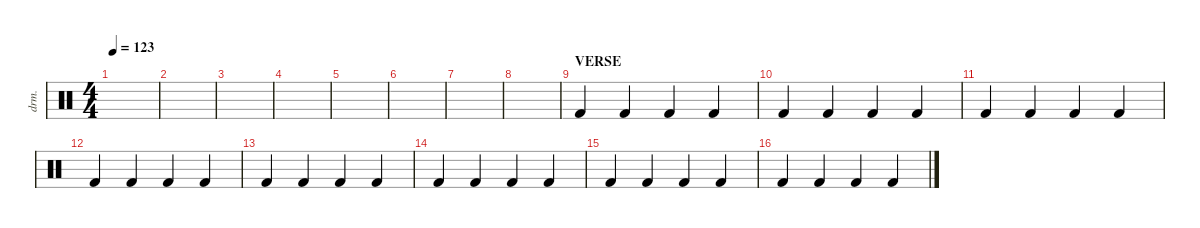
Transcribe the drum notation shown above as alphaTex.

\defaultSystemsLayout 4
\hideDynamics
\bracketExtendMode nobrackets
\track ("Drumkit" "drm.") {instrument percussion}
\staff {score}
\articulation defaults
\ts (4 4)
\tempo 123
\clef neutral
\ks c
|
|
|
|
|
|
|
|
\section ("" "VERSE")
"Kick (hit) 2".4{beam Up} "Kick (hit) 2".4{beam Up} "Kick (hit) 2".4{beam Up} "Kick (hit) 2".4{beam Up} |
"Kick (hit) 2".4{beam Up} "Kick (hit) 2".4{beam Up} "Kick (hit) 2".4{beam Up} "Kick (hit) 2".4{beam Up} |
"Kick (hit) 2".4{beam Up} "Kick (hit) 2".4{beam Up} "Kick (hit) 2".4{beam Up} "Kick (hit) 2".4{beam Up} |
"Kick (hit) 2".4{beam Up} "Kick (hit) 2".4{beam Up} "Kick (hit) 2".4{beam Up} "Kick (hit) 2".4{beam Up} |
"Kick (hit) 2".4{beam Up} "Kick (hit) 2".4{beam Up} "Kick (hit) 2".4{beam Up} "Kick (hit) 2".4{beam Up} |
"Kick (hit) 2".4{beam Up} "Kick (hit) 2".4{beam Up} "Kick (hit) 2".4{beam Up} "Kick (hit) 2".4{beam Up} |
"Kick (hit) 2".4{beam Up} "Kick (hit) 2".4{beam Up} "Kick (hit) 2".4{beam Up} "Kick (hit) 2".4{beam Up} |
"Kick (hit) 2".4{beam Up} "Kick (hit) 2".4{beam Up} "Kick (hit) 2".4{beam Up} "Kick (hit) 2".4{beam Up}
